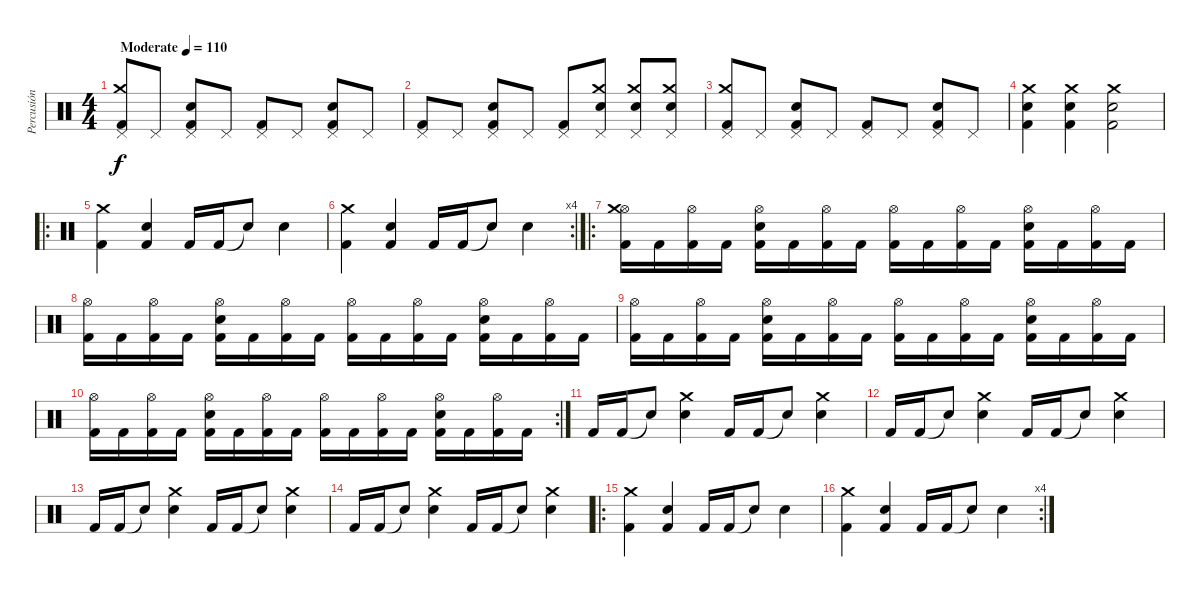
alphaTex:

\track ("Percusión" "Percusión") {instrument percussion}
\staff {score}
\articulation defaults
\ts (4 4)
\tempo (110 "Moderate")
\clef neutral
\ks c
("Pedal Hi-Hat (hit)" "Crash medium (hit)" "Kick (hit) 2").8{dy f} "Pedal Hi-Hat (hit)".8 ("Pedal Hi-Hat (hit)" "Electric Snare (hit)" "Kick (hit) 2").8 "Pedal Hi-Hat (hit)".8 ("Pedal Hi-Hat (hit)" "Kick (hit) 2").8 "Pedal Hi-Hat (hit)".8 ("Pedal Hi-Hat (hit)" "Electric Snare (hit)" "Kick (hit) 2").8 "Pedal Hi-Hat (hit)".8 |
("Pedal Hi-Hat (hit)" "Kick (hit) 2").8 "Pedal Hi-Hat (hit)".8 ("Pedal Hi-Hat (hit)" "Electric Snare (hit)" "Kick (hit) 2").8 "Pedal Hi-Hat (hit)".8 ("Pedal Hi-Hat (hit)" "Kick (hit) 2").8 ("Pedal Hi-Hat (hit)" "Crash medium (hit)" "Electric Snare (hit)").8 ("Pedal Hi-Hat (hit)" "Crash medium (hit)" "Electric Snare (hit)").8 ("Pedal Hi-Hat (hit)" "Crash medium (hit)" "Electric Snare (hit)").8 |
("Pedal Hi-Hat (hit)" "Crash medium (hit)" "Kick (hit) 2").8 "Pedal Hi-Hat (hit)".8 ("Pedal Hi-Hat (hit)" "Electric Snare (hit)" "Kick (hit) 2").8 "Pedal Hi-Hat (hit)".8 ("Pedal Hi-Hat (hit)" "Kick (hit) 2").8 "Pedal Hi-Hat (hit)".8 ("Pedal Hi-Hat (hit)" "Electric Snare (hit)" "Kick (hit) 2").8 "Pedal Hi-Hat (hit)".8 |
("Crash medium (hit)" "Electric Snare (hit)" "Kick (hit) 2").4 ("Crash medium (hit)" "Electric Snare (hit)" "Kick (hit) 2").4 ("Crash medium (hit)" "Electric Snare (hit)" "Kick (hit) 2").2 |
\ro
("Crash medium (hit)" "Kick (hit) 2").4 ("Electric Snare (hit)" "Kick (hit) 2").4 "Kick (hit) 2".16 "Kick (hit) 2".16 "Snare (hit)"{t}.8 "Electric Snare (hit)".4 |
\rc 4
("Crash medium (hit)" "Kick (hit) 2").4 ("Electric Snare (hit)" "Kick (hit) 2").4 "Kick (hit) 2".16 "Kick (hit) 2".16 "Snare (hit)"{t}.8 "Electric Snare (hit)".4 |
\ro
("Hi-Hat (open)" "Crash medium (hit)" "Kick (hit) 2").16 "Kick (hit) 2".16 ("Hi-Hat (open)" "Kick (hit) 2").16 "Kick (hit) 2".16 ("Hi-Hat (open)" "Electric Snare (hit)" "Kick (hit) 2").16 "Kick (hit) 2".16 ("Hi-Hat (open)" "Kick (hit) 2").16 "Kick (hit) 2".16 ("Hi-Hat (open)" "Kick (hit) 2").16 "Kick (hit) 2".16 ("Hi-Hat (open)" "Kick (hit) 2").16 "Kick (hit) 2".16 ("Hi-Hat (open)" "Electric Snare (hit)" "Kick (hit) 2").16 "Kick (hit) 2".16 ("Hi-Hat (open)" "Kick (hit) 2").16 "Kick (hit) 2".16 |
("Hi-Hat (open)" "Kick (hit) 2").16 "Kick (hit) 2".16 ("Hi-Hat (open)" "Kick (hit) 2").16 "Kick (hit) 2".16 ("Hi-Hat (open)" "Electric Snare (hit)" "Kick (hit) 2").16 "Kick (hit) 2".16 ("Hi-Hat (open)" "Kick (hit) 2").16 "Kick (hit) 2".16 ("Hi-Hat (open)" "Kick (hit) 2").16 "Kick (hit) 2".16 ("Hi-Hat (open)" "Kick (hit) 2").16 "Kick (hit) 2".16 ("Hi-Hat (open)" "Electric Snare (hit)" "Kick (hit) 2").16 "Kick (hit) 2".16 ("Hi-Hat (open)" "Kick (hit) 2").16 "Kick (hit) 2".16 |
("Hi-Hat (open)" "Kick (hit) 2").16 "Kick (hit) 2".16 ("Hi-Hat (open)" "Kick (hit) 2").16 "Kick (hit) 2".16 ("Hi-Hat (open)" "Electric Snare (hit)" "Kick (hit) 2").16 "Kick (hit) 2".16 ("Hi-Hat (open)" "Kick (hit) 2").16 "Kick (hit) 2".16 ("Hi-Hat (open)" "Kick (hit) 2").16 "Kick (hit) 2".16 ("Hi-Hat (open)" "Kick (hit) 2").16 "Kick (hit) 2".16 ("Hi-Hat (open)" "Electric Snare (hit)" "Kick (hit) 2").16 "Kick (hit) 2".16 ("Hi-Hat (open)" "Kick (hit) 2").16 "Kick (hit) 2".16 |
\rc 2
("Hi-Hat (open)" "Kick (hit) 2").16 "Kick (hit) 2".16 ("Hi-Hat (open)" "Kick (hit) 2").16 "Kick (hit) 2".16 ("Hi-Hat (open)" "Electric Snare (hit)" "Kick (hit) 2").16 "Kick (hit) 2".16 ("Hi-Hat (open)" "Kick (hit) 2").16 "Kick (hit) 2".16 ("Hi-Hat (open)" "Kick (hit) 2").16 "Kick (hit) 2".16 ("Hi-Hat (open)" "Kick (hit) 2").16 "Kick (hit) 2".16 ("Hi-Hat (open)" "Electric Snare (hit)" "Kick (hit) 2").16 "Kick (hit) 2".16 ("Hi-Hat (open)" "Kick (hit) 2").16 "Kick (hit) 2".16 |
"Kick (hit) 2".16 "Kick (hit) 2".16 "Snare (hit)"{t}.8 ("Crash medium (hit)" "Electric Snare (hit)").4 "Kick (hit) 2".16 "Kick (hit) 2".16 "Snare (hit)"{t}.8 ("Crash medium (hit)" "Electric Snare (hit)").4 |
"Kick (hit) 2".16 "Kick (hit) 2".16 "Snare (hit)"{t}.8 ("Crash medium (hit)" "Electric Snare (hit)").4 "Kick (hit) 2".16 "Kick (hit) 2".16 "Snare (hit)"{t}.8 ("Crash medium (hit)" "Electric Snare (hit)").4 |
"Kick (hit) 2".16 "Kick (hit) 2".16 "Snare (hit)"{t}.8 ("Crash medium (hit)" "Electric Snare (hit)").4 "Kick (hit) 2".16 "Kick (hit) 2".16 "Snare (hit)"{t}.8 ("Crash medium (hit)" "Electric Snare (hit)").4 |
"Kick (hit) 2".16 "Kick (hit) 2".16 "Snare (hit)"{t}.8 ("Crash medium (hit)" "Electric Snare (hit)").4 "Kick (hit) 2".16 "Kick (hit) 2".16 "Snare (hit)"{t}.8 ("Crash medium (hit)" "Electric Snare (hit)").4 |
\ro
("Crash medium (hit)" "Kick (hit) 2").4 ("Electric Snare (hit)" "Kick (hit) 2").4 "Kick (hit) 2".16 "Kick (hit) 2".16 "Snare (hit)"{t}.8 "Electric Snare (hit)".4 |
\rc 4
("Crash medium (hit)" "Kick (hit) 2").4 ("Electric Snare (hit)" "Kick (hit) 2").4 "Kick (hit) 2".16 "Kick (hit) 2".16 "Snare (hit)"{t}.8 "Electric Snare (hit)".4
